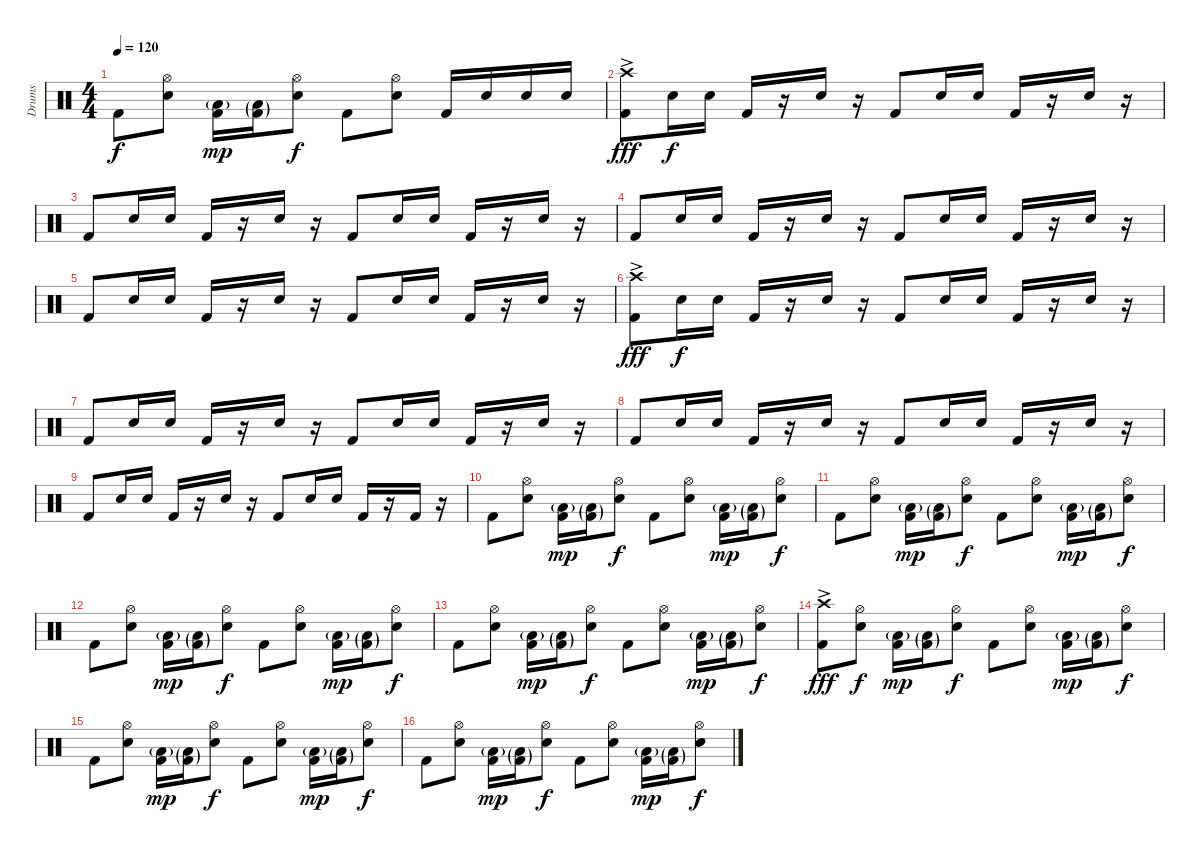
\track ("Drums" "Drums") {instrument percussion}
\staff {score}
\articulation defaults
\ts (4 4)
\tempo 120
\clef neutral
\ks c "Kick (hit) 2".8{dy f}
("Hi-Hat (open)" "Snare (hit) 2").8 ("Kick (hit) 2" "Low Floor Tom (hit)"{g}).16{dy mp} ("Kick (hit) 2"{g} "Low Floor Tom (hit)"{g}).16 ("Hi-Hat (open)" "Snare (hit) 2").8{dy f} "Kick (hit) 2".8 ("Hi-Hat (open)" "Snare (hit) 2").8 "Kick (hit) 2".16 "Snare (hit) 2".16 "Snare (hit) 2".16 "Snare (hit) 2".16 |
("Crash high (hit)"{ac} "Kick (hit) 2").8{dy fff} "Snare (hit) 2".16{dy f} "Snare (hit) 2".16 "Kick (hit) 2".16 r.16 "Snare (hit) 2".16 r.16 "Kick (hit) 2".8 "Snare (hit) 2".16 "Snare (hit) 2".16 "Kick (hit) 2".16 r.16 "Snare (hit) 2".16 r.16 |
"Kick (hit) 2".8 "Snare (hit) 2".16 "Snare (hit) 2".16 "Kick (hit) 2".16 r.16 "Snare (hit) 2".16 r.16 "Kick (hit) 2".8 "Snare (hit) 2".16 "Snare (hit) 2".16 "Kick (hit) 2".16 r.16 "Snare (hit) 2".16 r.16 |
"Kick (hit) 2".8 "Snare (hit) 2".16 "Snare (hit) 2".16 "Kick (hit) 2".16 r.16 "Snare (hit) 2".16 r.16 "Kick (hit) 2".8 "Snare (hit) 2".16 "Snare (hit) 2".16 "Kick (hit) 2".16 r.16 "Snare (hit) 2".16 r.16 |
"Kick (hit) 2".8 "Snare (hit) 2".16 "Snare (hit) 2".16 "Kick (hit) 2".16 r.16 "Snare (hit) 2".16 r.16 "Kick (hit) 2".8 "Snare (hit) 2".16 "Snare (hit) 2".16 "Kick (hit) 2".16 r.16 "Snare (hit) 2".16 r.16 |
("Crash high (hit)"{ac} "Kick (hit) 2").8{dy fff} "Snare (hit) 2".16{dy f} "Snare (hit) 2".16 "Kick (hit) 2".16 r.16 "Snare (hit) 2".16 r.16 "Kick (hit) 2".8 "Snare (hit) 2".16 "Snare (hit) 2".16 "Kick (hit) 2".16 r.16 "Snare (hit) 2".16 r.16 |
"Kick (hit) 2".8 "Snare (hit) 2".16 "Snare (hit) 2".16 "Kick (hit) 2".16 r.16 "Snare (hit) 2".16 r.16 "Kick (hit) 2".8 "Snare (hit) 2".16 "Snare (hit) 2".16 "Kick (hit) 2".16 r.16 "Snare (hit) 2".16 r.16 |
"Kick (hit) 2".8 "Snare (hit) 2".16 "Snare (hit) 2".16 "Kick (hit) 2".16 r.16 "Snare (hit) 2".16 r.16 "Kick (hit) 2".8 "Snare (hit) 2".16 "Snare (hit) 2".16 "Kick (hit) 2".16 r.16 "Snare (hit) 2".16 r.16 |
"Kick (hit) 2".8 "Snare (hit) 2".16 "Snare (hit) 2".16 "Kick (hit) 2".16 r.16 "Snare (hit) 2".16 r.16 "Kick (hit) 2".8 "Snare (hit) 2".16 "Snare (hit) 2".16 "Kick (hit) 2".16 r.16 "Kick (hit) 2".16 r.16 |
"Kick (hit) 2".8 ("Hi-Hat (open)" "Snare (hit) 2").8 ("Kick (hit) 2" "Low Floor Tom (hit)"{g}).16{dy mp} ("Kick (hit) 2"{g} "Low Floor Tom (hit)"{g}).16 ("Hi-Hat (open)" "Snare (hit) 2").8{dy f} "Kick (hit) 2".8 ("Hi-Hat (open)" "Snare (hit) 2").8 ("Kick (hit) 2" "Low Floor Tom (hit)"{g}).16{dy mp} ("Kick (hit) 2"{g} "Low Floor Tom (hit)"{g}).16 ("Hi-Hat (open)" "Snare (hit) 2").8{dy f} |
"Kick (hit) 2".8 ("Hi-Hat (open)" "Snare (hit) 2").8 ("Kick (hit) 2" "Low Floor Tom (hit)"{g}).16{dy mp} ("Kick (hit) 2"{g} "Low Floor Tom (hit)"{g}).16 ("Hi-Hat (open)" "Snare (hit) 2").8{dy f} "Kick (hit) 2".8 ("Hi-Hat (open)" "Snare (hit) 2").8 ("Kick (hit) 2" "Low Floor Tom (hit)"{g}).16{dy mp} ("Kick (hit) 2"{g} "Low Floor Tom (hit)"{g}).16 ("Hi-Hat (open)" "Snare (hit) 2").8{dy f} |
"Kick (hit) 2".8 ("Hi-Hat (open)" "Snare (hit) 2").8 ("Kick (hit) 2" "Low Floor Tom (hit)"{g}).16{dy mp} ("Kick (hit) 2"{g} "Low Floor Tom (hit)"{g}).16 ("Hi-Hat (open)" "Snare (hit) 2").8{dy f} "Kick (hit) 2".8 ("Hi-Hat (open)" "Snare (hit) 2").8 ("Kick (hit) 2" "Low Floor Tom (hit)"{g}).16{dy mp} ("Kick (hit) 2"{g} "Low Floor Tom (hit)"{g}).16 ("Hi-Hat (open)" "Snare (hit) 2").8{dy f} |
"Kick (hit) 2".8 ("Hi-Hat (open)" "Snare (hit) 2").8 ("Kick (hit) 2" "Low Floor Tom (hit)"{g}).16{dy mp} ("Kick (hit) 2"{g} "Low Floor Tom (hit)"{g}).16 ("Hi-Hat (open)" "Snare (hit) 2").8{dy f} "Kick (hit) 2".8 ("Hi-Hat (open)" "Snare (hit) 2").8 ("Kick (hit) 2" "Low Floor Tom (hit)"{g}).16{dy mp} ("Kick (hit) 2"{g} "Low Floor Tom (hit)"{g}).16 ("Hi-Hat (open)" "Snare (hit) 2").8{dy f} |
("Crash high (hit)"{ac} "Kick (hit) 2").8{dy fff} ("Hi-Hat (open)" "Snare (hit) 2").8{dy f} ("Kick (hit) 2" "Low Floor Tom (hit)"{g}).16{dy mp} ("Kick (hit) 2"{g} "Low Floor Tom (hit)"{g}).16 ("Hi-Hat (open)" "Snare (hit) 2").8{dy f} "Kick (hit) 2".8 ("Hi-Hat (open)" "Snare (hit) 2").8 ("Kick (hit) 2" "Low Floor Tom (hit)"{g}).16{dy mp} ("Kick (hit) 2"{g} "Low Floor Tom (hit)"{g}).16 ("Hi-Hat (open)" "Snare (hit) 2").8{dy f} |
"Kick (hit) 2".8 ("Hi-Hat (open)" "Snare (hit) 2").8 ("Kick (hit) 2" "Low Floor Tom (hit)"{g}).16{dy mp} ("Kick (hit) 2"{g} "Low Floor Tom (hit)"{g}).16 ("Hi-Hat (open)" "Snare (hit) 2").8{dy f} "Kick (hit) 2".8 ("Hi-Hat (open)" "Snare (hit) 2").8 ("Kick (hit) 2" "Low Floor Tom (hit)"{g}).16{dy mp} ("Kick (hit) 2"{g} "Low Floor Tom (hit)"{g}).16 ("Hi-Hat (open)" "Snare (hit) 2").8{dy f} |
"Kick (hit) 2".8 ("Hi-Hat (open)" "Snare (hit) 2").8 ("Kick (hit) 2" "Low Floor Tom (hit)"{g}).16{dy mp} ("Kick (hit) 2"{g} "Low Floor Tom (hit)"{g}).16 ("Hi-Hat (open)" "Snare (hit) 2").8{dy f} "Kick (hit) 2".8 ("Hi-Hat (open)" "Snare (hit) 2").8 ("Kick (hit) 2" "Low Floor Tom (hit)"{g}).16{dy mp} ("Kick (hit) 2"{g} "Low Floor Tom (hit)"{g}).16 ("Hi-Hat (open)" "Snare (hit) 2").8{dy f}
